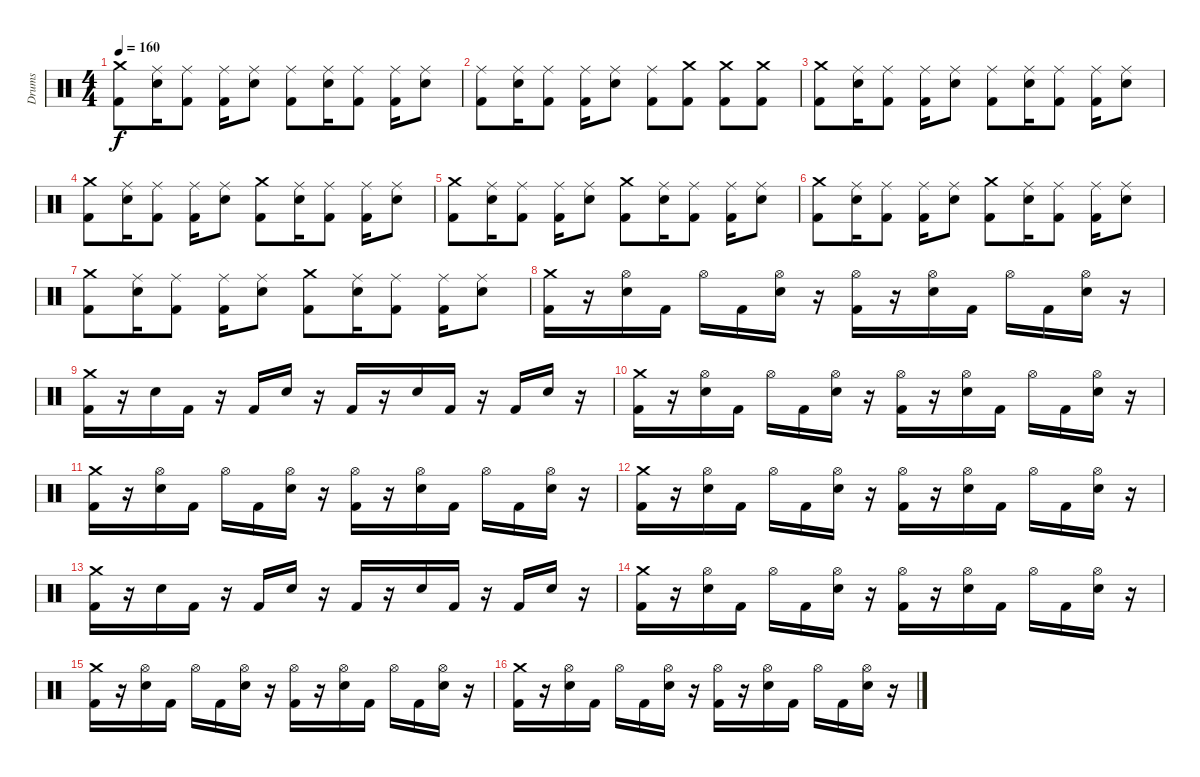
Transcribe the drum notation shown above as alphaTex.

\track ("Drums" "Drums") {instrument percussion}
\staff {score}
\articulation defaults
\ts (4 4)
\tempo 160
\clef neutral
\ks c
("Crash medium (hit)" "Kick (hit) 2").8{dy f} ("Snare (hit) 2" "Ride (middle)").16 ("Ride (middle)" "Kick (hit) 2").8 ("Ride (middle)" "Kick (hit) 2").16 ("Snare (hit) 2" "Ride (middle)").8 ("Ride (middle)" "Kick (hit) 2").8 ("Snare (hit) 2" "Ride (middle)").16 ("Ride (middle)" "Kick (hit) 2").8 ("Ride (middle)" "Kick (hit) 2").16 ("Snare (hit) 2" "Ride (middle)").8 |
("Ride (middle)" "Kick (hit) 2").8 ("Snare (hit) 2" "Ride (middle)").16 ("Ride (middle)" "Kick (hit) 2").8 ("Ride (middle)" "Kick (hit) 2").16 ("Snare (hit) 2" "Ride (middle)").8 ("Ride (middle)" "Kick (hit) 2").8 ("Crash medium (hit)" "Kick (hit) 2").8 ("Crash medium (hit)" "Kick (hit) 2").8 ("Crash medium (hit)" "Kick (hit) 2").8 |
("Crash medium (hit)" "Kick (hit) 2").8 ("Snare (hit) 2" "Ride (middle)").16 ("Ride (middle)" "Kick (hit) 2").8 ("Ride (middle)" "Kick (hit) 2").16 ("Snare (hit) 2" "Ride (middle)").8 ("Ride (middle)" "Kick (hit) 2").8 ("Snare (hit) 2" "Ride (middle)").16 ("Ride (middle)" "Kick (hit) 2").8 ("Ride (middle)" "Kick (hit) 2").16 ("Snare (hit) 2" "Ride (middle)").8 |
("Crash medium (hit)" "Kick (hit) 2").8 ("Snare (hit) 2" "Ride (middle)").16 ("Ride (middle)" "Kick (hit) 2").8 ("Ride (middle)" "Kick (hit) 2").16 ("Snare (hit) 2" "Ride (middle)").8 ("Crash medium (hit)" "Kick (hit) 2").8 ("Snare (hit) 2" "Ride (middle)").16 ("Ride (middle)" "Kick (hit) 2").8 ("Ride (middle)" "Kick (hit) 2").16 ("Snare (hit) 2" "Ride (middle)").8 |
("Crash medium (hit)" "Kick (hit) 2").8 ("Snare (hit) 2" "Ride (middle)").16 ("Ride (middle)" "Kick (hit) 2").8 ("Ride (middle)" "Kick (hit) 2").16 ("Snare (hit) 2" "Ride (middle)").8 ("Crash medium (hit)" "Kick (hit) 2").8 ("Snare (hit) 2" "Ride (middle)").16 ("Ride (middle)" "Kick (hit) 2").8 ("Ride (middle)" "Kick (hit) 2").16 ("Snare (hit) 2" "Ride (middle)").8 |
("Crash medium (hit)" "Kick (hit) 2").8 ("Snare (hit) 2" "Ride (middle)").16 ("Ride (middle)" "Kick (hit) 2").8 ("Ride (middle)" "Kick (hit) 2").16 ("Snare (hit) 2" "Ride (middle)").8 ("Crash medium (hit)" "Kick (hit) 2").8 ("Snare (hit) 2" "Ride (middle)").16 ("Ride (middle)" "Kick (hit) 2").8 ("Ride (middle)" "Kick (hit) 2").16 ("Snare (hit) 2" "Ride (middle)").8 |
("Crash medium (hit)" "Kick (hit) 2").8 ("Snare (hit) 2" "Ride (middle)").16 ("Ride (middle)" "Kick (hit) 2").8 ("Ride (middle)" "Kick (hit) 2").16 ("Snare (hit) 2" "Ride (middle)").8 ("Crash medium (hit)" "Kick (hit) 2").8 ("Snare (hit) 2" "Ride (middle)").16 ("Ride (middle)" "Kick (hit) 2").8 ("Ride (middle)" "Kick (hit) 2").16 ("Snare (hit) 2" "Ride (middle)").8 |
("Crash medium (hit)" "Kick (hit) 2").16 r.16 ("Snare (hit) 2" "Hi-Hat (open)").16 "Kick (hit) 2".16 "Hi-Hat (open)".16 "Kick (hit) 2".16 ("Snare (hit) 2" "Hi-Hat (open)").16 r.16 ("Hi-Hat (open)" "Kick (hit) 2").16 r.16 ("Snare (hit) 2" "Hi-Hat (open)").16 "Kick (hit) 2".16 "Hi-Hat (open)".16 "Kick (hit) 2".16 ("Snare (hit) 2" "Hi-Hat (open)").16 r.16 |
("Crash medium (hit)" "Kick (hit) 2").16 r.16 "Snare (hit) 2".16 "Kick (hit) 2".16 r.16 "Kick (hit) 2".16 "Snare (hit) 2".16 r.16 "Kick (hit) 2".16 r.16 "Snare (hit) 2".16 "Kick (hit) 2".16 r.16 "Kick (hit) 2".16 "Snare (hit) 2".16 r.16 |
("Crash medium (hit)" "Kick (hit) 2").16 r.16 ("Snare (hit) 2" "Hi-Hat (open)").16 "Kick (hit) 2".16 "Hi-Hat (open)".16 "Kick (hit) 2".16 ("Snare (hit) 2" "Hi-Hat (open)").16 r.16 ("Hi-Hat (open)" "Kick (hit) 2").16 r.16 ("Snare (hit) 2" "Hi-Hat (open)").16 "Kick (hit) 2".16 "Hi-Hat (open)".16 "Kick (hit) 2".16 ("Snare (hit) 2" "Hi-Hat (open)").16 r.16 |
("Crash medium (hit)" "Kick (hit) 2").16 r.16 ("Snare (hit) 2" "Hi-Hat (open)").16 "Kick (hit) 2".16 "Hi-Hat (open)".16 "Kick (hit) 2".16 ("Snare (hit) 2" "Hi-Hat (open)").16 r.16 ("Hi-Hat (open)" "Kick (hit) 2").16 r.16 ("Snare (hit) 2" "Hi-Hat (open)").16 "Kick (hit) 2".16 "Hi-Hat (open)".16 "Kick (hit) 2".16 ("Snare (hit) 2" "Hi-Hat (open)").16 r.16 |
("Crash medium (hit)" "Kick (hit) 2").16 r.16 ("Snare (hit) 2" "Hi-Hat (open)").16 "Kick (hit) 2".16 "Hi-Hat (open)".16 "Kick (hit) 2".16 ("Snare (hit) 2" "Hi-Hat (open)").16 r.16 ("Hi-Hat (open)" "Kick (hit) 2").16 r.16 ("Snare (hit) 2" "Hi-Hat (open)").16 "Kick (hit) 2".16 "Hi-Hat (open)".16 "Kick (hit) 2".16 ("Snare (hit) 2" "Hi-Hat (open)").16 r.16 |
("Crash medium (hit)" "Kick (hit) 2").16 r.16 "Snare (hit) 2".16 "Kick (hit) 2".16 r.16 "Kick (hit) 2".16 "Snare (hit) 2".16 r.16 "Kick (hit) 2".16 r.16 "Snare (hit) 2".16 "Kick (hit) 2".16 r.16 "Kick (hit) 2".16 "Snare (hit) 2".16 r.16 |
("Crash medium (hit)" "Kick (hit) 2").16 r.16 ("Snare (hit) 2" "Hi-Hat (open)").16 "Kick (hit) 2".16 "Hi-Hat (open)".16 "Kick (hit) 2".16 ("Snare (hit) 2" "Hi-Hat (open)").16 r.16 ("Hi-Hat (open)" "Kick (hit) 2").16 r.16 ("Snare (hit) 2" "Hi-Hat (open)").16 "Kick (hit) 2".16 "Hi-Hat (open)".16 "Kick (hit) 2".16 ("Snare (hit) 2" "Hi-Hat (open)").16 r.16 |
("Crash medium (hit)" "Kick (hit) 2").16 r.16 ("Snare (hit) 2" "Hi-Hat (open)").16 "Kick (hit) 2".16 "Hi-Hat (open)".16 "Kick (hit) 2".16 ("Snare (hit) 2" "Hi-Hat (open)").16 r.16 ("Hi-Hat (open)" "Kick (hit) 2").16 r.16 ("Snare (hit) 2" "Hi-Hat (open)").16 "Kick (hit) 2".16 "Hi-Hat (open)".16 "Kick (hit) 2".16 ("Snare (hit) 2" "Hi-Hat (open)").16 r.16 |
("Crash medium (hit)" "Kick (hit) 2").16 r.16 ("Snare (hit) 2" "Hi-Hat (open)").16 "Kick (hit) 2".16 "Hi-Hat (open)".16 "Kick (hit) 2".16 ("Snare (hit) 2" "Hi-Hat (open)").16 r.16 ("Hi-Hat (open)" "Kick (hit) 2").16 r.16 ("Snare (hit) 2" "Hi-Hat (open)").16 "Kick (hit) 2".16 "Hi-Hat (open)".16 "Kick (hit) 2".16 ("Snare (hit) 2" "Hi-Hat (open)").16 r.16
